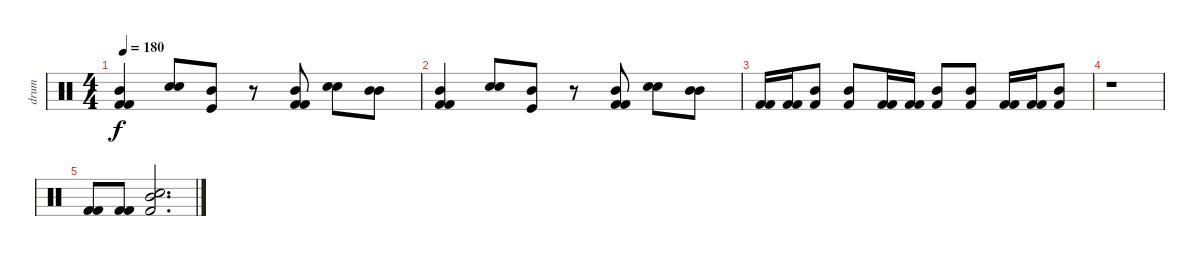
\track ("drum" "drum") {instrument percussion}
\staff {score}
\articulation defaults
\ts (4 4)
\tempo 180
\clef neutral
\ks c
("Kick (hit) 2" "Mid Tom (hit)" "Kick (hit) 2").4{dy f} ("Electric Snare (hit)" "Electric Snare (hit)").8 ("Kick (hit)" "Mid Tom (hit)").8 r.8 ("Mid Tom (hit)" "Kick (hit) 2" "Kick (hit) 2").8 ("Electric Snare (hit)" "Electric Snare (hit)").8 ("Mid Tom (hit)" "Mid Tom (hit)").8 |
("Kick (hit) 2" "Mid Tom (hit)" "Kick (hit) 2").4 ("Electric Snare (hit)" "Electric Snare (hit)").8 ("Kick (hit)" "Mid Tom (hit)").8 r.8 ("Mid Tom (hit)" "Kick (hit) 2" "Kick (hit) 2").8 ("Electric Snare (hit)" "Electric Snare (hit)").8 ("Mid Tom (hit)" "Mid Tom (hit)").8 |
("Kick (hit) 2" "Kick (hit) 2").16 ("Kick (hit) 2" "Kick (hit) 2").16 ("Kick (hit) 2" "Mid Tom (hit)").8 ("Kick (hit) 2" "Mid Tom (hit)").8 ("Kick (hit) 2" "Kick (hit) 2").16 ("Kick (hit) 2" "Kick (hit) 2").16 ("Mid Tom (hit)" "Kick (hit) 2").8 ("Kick (hit) 2" "Mid Tom (hit)").8 ("Kick (hit) 2" "Kick (hit) 2").16 ("Kick (hit) 2" "Kick (hit) 2").16 ("Mid Tom (hit)" "Kick (hit) 2").8 |
r.1 |
("Kick (hit) 2" "Kick (hit) 2").8 ("Kick (hit) 2" "Kick (hit) 2").8 ("Kick (hit) 2" "Mid Tom (hit)" "Electric Snare (hit)").2{d}
